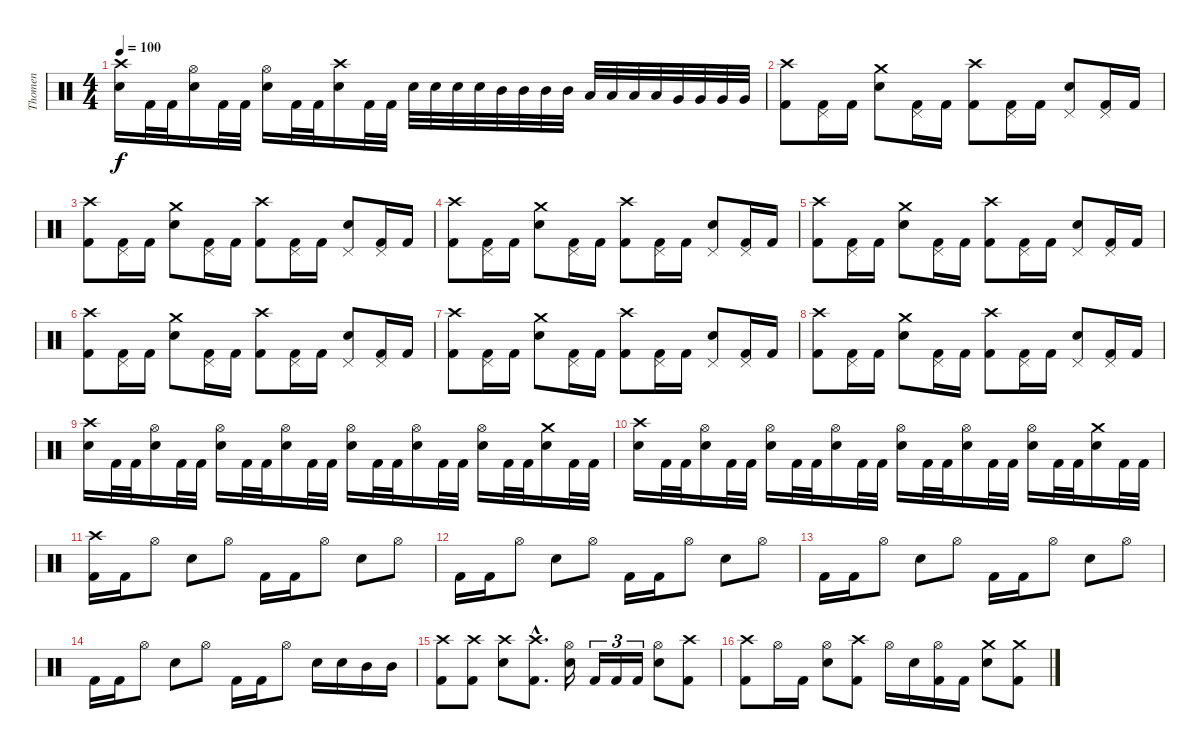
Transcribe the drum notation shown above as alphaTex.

\track ("Thomen" "Thomen") {instrument percussion}
\staff {score}
\articulation defaults
\ts (4 4)
\tempo 100
\clef neutral
\ks c
("Crash high (hit)" "Snare (hit) 2").16{dy f} "Kick (hit) 2".32 "Kick (hit) 2".32 ("Hi-Hat (open)" "Snare (hit) 2").16 "Kick (hit) 2".32 "Kick (hit) 2".32 ("Hi-Hat (open)" "Snare (hit) 2").16 "Kick (hit) 2".32 "Kick (hit) 2".32 ("Crash high (hit)" "Snare (hit) 2").16 "Kick (hit) 2".32 "Kick (hit) 2".32 "Snare (hit) 2".32 "Snare (hit) 2".32 "Snare (hit) 2".32 "Snare (hit) 2".32 "Mid Tom (hit)".32 "Mid Tom (hit)".32 "Mid Tom (hit)".32 "Mid Tom (hit)".32 "Low Tom (hit)".32 "Low Tom (hit)".32 "Low Tom (hit)".32 "Low Tom (hit)".32 "Very Low Tom (hit)".32 "Very Low Tom (hit)".32 "Very Low Tom (hit)".32 "Very Low Tom (hit)".32 |
("Crash high (hit)" "Kick (hit) 2").8 ("Pedal Hi-Hat (hit)" "Kick (hit) 2").16 "Kick (hit) 2".16 ("Crash medium (hit)" "Snare (hit) 2").8 ("Pedal Hi-Hat (hit)" "Kick (hit) 2").16 "Kick (hit) 2".16 ("Crash high (hit)" "Kick (hit) 2").8 ("Pedal Hi-Hat (hit)" "Kick (hit) 2").16 "Kick (hit) 2".16 ("Pedal Hi-Hat (hit)" "Snare (hit) 2").8 ("Pedal Hi-Hat (hit)" "Kick (hit) 2").16 "Kick (hit) 2".16 |
("Crash high (hit)" "Kick (hit) 2").8 ("Pedal Hi-Hat (hit)" "Kick (hit) 2").16 "Kick (hit) 2".16 ("Crash medium (hit)" "Snare (hit) 2").8 ("Pedal Hi-Hat (hit)" "Kick (hit) 2").16 "Kick (hit) 2".16 ("Crash high (hit)" "Kick (hit) 2").8 ("Pedal Hi-Hat (hit)" "Kick (hit) 2").16 "Kick (hit) 2".16 ("Pedal Hi-Hat (hit)" "Snare (hit) 2").8 ("Pedal Hi-Hat (hit)" "Kick (hit) 2").16 "Kick (hit) 2".16 |
("Crash high (hit)" "Kick (hit) 2").8 ("Pedal Hi-Hat (hit)" "Kick (hit) 2").16 "Kick (hit) 2".16 ("Crash medium (hit)" "Snare (hit) 2").8 ("Pedal Hi-Hat (hit)" "Kick (hit) 2").16 "Kick (hit) 2".16 ("Crash high (hit)" "Kick (hit) 2").8 ("Pedal Hi-Hat (hit)" "Kick (hit) 2").16 "Kick (hit) 2".16 ("Pedal Hi-Hat (hit)" "Snare (hit) 2").8 ("Pedal Hi-Hat (hit)" "Kick (hit) 2").16 "Kick (hit) 2".16 |
("Crash high (hit)" "Kick (hit) 2").8 ("Pedal Hi-Hat (hit)" "Kick (hit) 2").16 "Kick (hit) 2".16 ("Crash medium (hit)" "Snare (hit) 2").8 ("Pedal Hi-Hat (hit)" "Kick (hit) 2").16 "Kick (hit) 2".16 ("Crash high (hit)" "Kick (hit) 2").8 ("Pedal Hi-Hat (hit)" "Kick (hit) 2").16 "Kick (hit) 2".16 ("Pedal Hi-Hat (hit)" "Snare (hit) 2").8 ("Pedal Hi-Hat (hit)" "Kick (hit) 2").16 "Kick (hit) 2".16 |
("Crash high (hit)" "Kick (hit) 2").8 ("Pedal Hi-Hat (hit)" "Kick (hit) 2").16 "Kick (hit) 2".16 ("Crash medium (hit)" "Snare (hit) 2").8 ("Pedal Hi-Hat (hit)" "Kick (hit) 2").16 "Kick (hit) 2".16 ("Crash high (hit)" "Kick (hit) 2").8 ("Pedal Hi-Hat (hit)" "Kick (hit) 2").16 "Kick (hit) 2".16 ("Pedal Hi-Hat (hit)" "Snare (hit) 2").8 ("Pedal Hi-Hat (hit)" "Kick (hit) 2").16 "Kick (hit) 2".16 |
("Crash high (hit)" "Kick (hit) 2").8 ("Pedal Hi-Hat (hit)" "Kick (hit) 2").16 "Kick (hit) 2".16 ("Crash medium (hit)" "Snare (hit) 2").8 ("Pedal Hi-Hat (hit)" "Kick (hit) 2").16 "Kick (hit) 2".16 ("Crash high (hit)" "Kick (hit) 2").8 ("Pedal Hi-Hat (hit)" "Kick (hit) 2").16 "Kick (hit) 2".16 ("Pedal Hi-Hat (hit)" "Snare (hit) 2").8 ("Pedal Hi-Hat (hit)" "Kick (hit) 2").16 "Kick (hit) 2".16 |
("Crash high (hit)" "Kick (hit) 2").8 ("Pedal Hi-Hat (hit)" "Kick (hit) 2").16 "Kick (hit) 2".16 ("Crash medium (hit)" "Snare (hit) 2").8 ("Pedal Hi-Hat (hit)" "Kick (hit) 2").16 "Kick (hit) 2".16 ("Crash high (hit)" "Kick (hit) 2").8 ("Pedal Hi-Hat (hit)" "Kick (hit) 2").16 "Kick (hit) 2".16 ("Pedal Hi-Hat (hit)" "Snare (hit) 2").8 ("Pedal Hi-Hat (hit)" "Kick (hit) 2").16 "Kick (hit) 2".16 |
("Crash high (hit)" "Snare (hit) 2").16 "Kick (hit) 2".32 "Kick (hit) 2".32 ("Hi-Hat (open)" "Snare (hit) 2").16 "Kick (hit) 2".32 "Kick (hit) 2".32 ("Hi-Hat (open)" "Snare (hit) 2").16 "Kick (hit) 2".32 "Kick (hit) 2".32 ("Hi-Hat (open)" "Snare (hit) 2").16 "Kick (hit) 2".32 "Kick (hit) 2".32 ("Hi-Hat (open)" "Snare (hit) 2").16 "Kick (hit) 2".32 "Kick (hit) 2".32 ("Hi-Hat (open)" "Snare (hit) 2").16 "Kick (hit) 2".32 "Kick (hit) 2".32 ("Hi-Hat (open)" "Snare (hit) 2").16 "Kick (hit) 2".32 "Kick (hit) 2".32 ("Crash medium (hit)" "Snare (hit) 2").16 "Kick (hit) 2".32 "Kick (hit) 2".32 |
("Crash high (hit)" "Snare (hit) 2").16 "Kick (hit) 2".32 "Kick (hit) 2".32 ("Hi-Hat (open)" "Snare (hit) 2").16 "Kick (hit) 2".32 "Kick (hit) 2".32 ("Hi-Hat (open)" "Snare (hit) 2").16 "Kick (hit) 2".32 "Kick (hit) 2".32 ("Hi-Hat (open)" "Snare (hit) 2").16 "Kick (hit) 2".32 "Kick (hit) 2".32 ("Hi-Hat (open)" "Snare (hit) 2").16 "Kick (hit) 2".32 "Kick (hit) 2".32 ("Hi-Hat (open)" "Snare (hit) 2").16 "Kick (hit) 2".32 "Kick (hit) 2".32 ("Hi-Hat (open)" "Snare (hit) 2").16 "Kick (hit) 2".32 "Kick (hit) 2".32 ("Crash medium (hit)" "Snare (hit) 2").16 "Kick (hit) 2".32 "Kick (hit) 2".32 |
("Crash high (hit)" "Kick (hit) 2").16 "Kick (hit) 2".16 "Hi-Hat (open)".8 "Snare (hit) 2".8 "Hi-Hat (open)".8 "Kick (hit) 2".16 "Kick (hit) 2".16 "Hi-Hat (open)".8 "Snare (hit) 2".8 "Hi-Hat (open)".8 |
"Kick (hit) 2".16 "Kick (hit) 2".16 "Hi-Hat (open)".8 "Snare (hit) 2".8 "Hi-Hat (open)".8 "Kick (hit) 2".16 "Kick (hit) 2".16 "Hi-Hat (open)".8 "Snare (hit) 2".8 "Hi-Hat (open)".8 |
"Kick (hit) 2".16 "Kick (hit) 2".16 "Hi-Hat (open)".8 "Snare (hit) 2".8 "Hi-Hat (open)".8 "Kick (hit) 2".16 "Kick (hit) 2".16 "Hi-Hat (open)".8 "Snare (hit) 2".8 "Hi-Hat (open)".8 |
"Kick (hit) 2".16 "Kick (hit) 2".16 "Hi-Hat (open)".8 "Snare (hit) 2".8 "Hi-Hat (open)".8 "Kick (hit) 2".16 "Kick (hit) 2".16 "Hi-Hat (open)".8 "Snare (hit) 2".16 "Snare (hit) 2".16 "Mid Tom (hit)".16 "Mid Tom (hit)".16 |
("Crash high (hit)" "Kick (hit) 2").8 ("Crash high (hit)" "Kick (hit) 2").8 ("Crash high (hit)" "Snare (hit) 2").8 ("Crash high (hit)"{hac} "Kick (hit) 2"{hac}).8{d} ("Hi-Hat (open)" "Snare (hit) 2").16 "Kick (hit) 2".16{tu (3 2)} "Kick (hit) 2".16{tu (3 2)} "Kick (hit) 2".16{tu (3 2)} ("Hi-Hat (open)" "Snare (hit) 2").8 ("Crash high (hit)" "Kick (hit) 2").8 |
("Crash high (hit)" "Kick (hit) 2").8 "Hi-Hat (open)".16 "Kick (hit) 2".16 ("Hi-Hat (open)" "Snare (hit) 2").8 ("Crash high (hit)" "Kick (hit) 2").8 "Hi-Hat (open)".16 "Snare (hit) 2".16 ("Hi-Hat (open)" "Kick (hit) 2").16 "Kick (hit) 2".16 ("Crash medium (hit)" "Snare (hit) 2").8 ("Crash medium (hit)" "Kick (hit) 2").8
